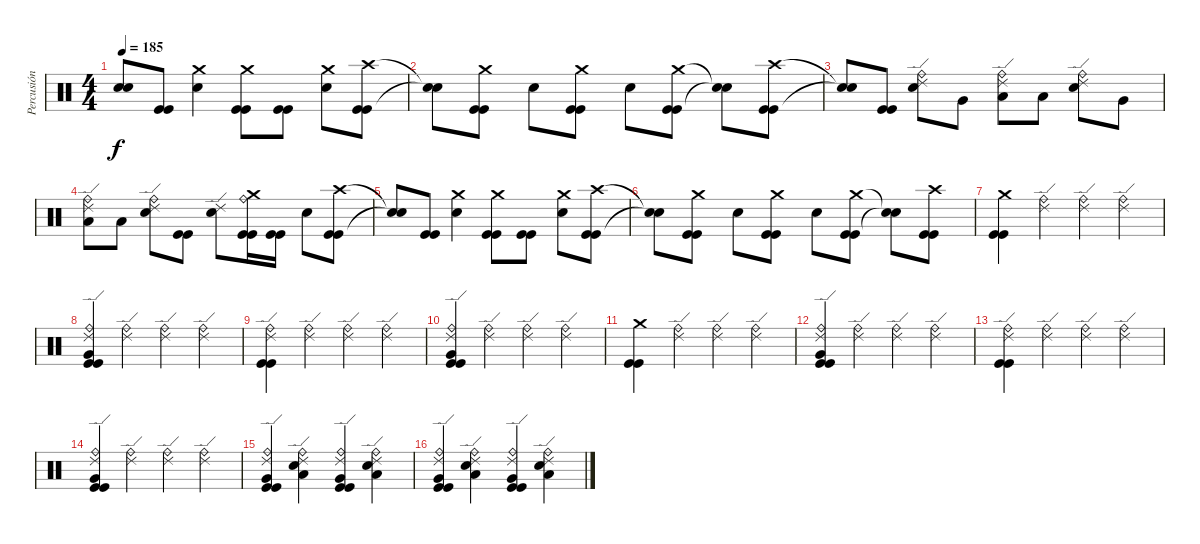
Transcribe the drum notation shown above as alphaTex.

\track ("Percusión" "Percusión") {instrument percussion}
\staff {score}
\articulation defaults
\ts (4 4)
\tempo 185
\clef neutral
\ks c
("Snare (hit)"{t} "Snare (hit)"{t}).8{dy f} ("Kick (hit)" "Kick (hit)").8 ("Crash medium (hit)" "Electric Snare (hit)").4 ("Crash medium (hit)" "Kick (hit)" "Kick (hit)").8 ("Kick (hit)" "Kick (hit)").8 ("Crash medium (hit)" "Electric Snare (hit)").8 ("Crash high (hit)" "Kick (hit)" "Kick (hit)").8 |
("Snare (hit)"{t} "Snare (hit)"{t}).8 ("Crash medium (hit)" "Kick (hit)" "Kick (hit)").8 "Electric Snare (hit)".8 ("Crash medium (hit)" "Kick (hit)" "Kick (hit)").8 "Electric Snare (hit)".8 ("Crash medium (hit)" "Kick (hit)" "Kick (hit)").8 ("Snare (hit)"{t} "Snare (hit)"{t}).8 ("Crash high (hit)" "Kick (hit)" "Kick (hit)").8 |
("Snare (hit)"{t} "Snare (hit)"{t}).8 ("Kick (hit)" "Kick (hit)").8 ("Ride (edge) 2" "Ride (bell)" "Electric Snare (hit)").8 "Very Low Tom (hit)".8 ("Ride (edge) 2" "Ride (bell)" "Low Floor Tom (hit)").8 "Low Floor Tom (hit)".8 ("Ride (edge) 2" "Ride (bell)" "Electric Snare (hit)").8 "Very Low Tom (hit)".8 |
("Ride (edge) 2" "Ride (bell)" "Low Floor Tom (hit)").8 "Low Floor Tom (hit)".8 ("Ride (edge) 2" "Ride (bell)" "Electric Snare (hit)").8 ("Kick (hit)" "Kick (hit)").8 ("Ride (edge) 2" "Electric Snare (hit)").8 ("Crash medium (hit)" "Ride (bell)" "Kick (hit)" "Kick (hit)").16 ("Kick (hit)" "Kick (hit)").16 "Electric Snare (hit)".8 ("Crash high (hit)" "Kick (hit)" "Kick (hit)").8 |
("Snare (hit)"{t} "Snare (hit)"{t}).8 ("Kick (hit)" "Kick (hit)").8 ("Crash medium (hit)" "Electric Snare (hit)").4 ("Crash medium (hit)" "Kick (hit)" "Kick (hit)").8 ("Kick (hit)" "Kick (hit)").8 ("Crash medium (hit)" "Electric Snare (hit)").8 ("Crash high (hit)" "Kick (hit)" "Kick (hit)").8 |
("Snare (hit)"{t} "Snare (hit)"{t}).8 ("Crash medium (hit)" "Kick (hit)" "Kick (hit)").8 "Electric Snare (hit)".8 ("Crash medium (hit)" "Kick (hit)" "Kick (hit)").8 "Electric Snare (hit)".8 ("Crash medium (hit)" "Kick (hit)" "Kick (hit)").8 ("Snare (hit)"{t} "Snare (hit)"{t}).8 ("Crash high (hit)" "Kick (hit)" "Kick (hit)").8 |
("Crash medium (hit)" "Kick (hit)" "Kick (hit)").4 ("Ride (edge) 2" "Ride (bell)").4 ("Ride (edge) 2" "Ride (bell)").4 ("Ride (edge) 2" "Ride (bell)").4 |
("Ride (edge) 2" "Ride (bell)" "Very Low Tom (hit)" "Kick (hit)" "Kick (hit)").4 ("Ride (edge) 2" "Ride (bell)").4 ("Ride (edge) 2" "Ride (bell)").4 ("Ride (edge) 2" "Ride (bell)").4 |
("Ride (edge) 2" "Ride (bell)" "Kick (hit)" "Kick (hit)").4 ("Ride (edge) 2" "Ride (bell)").4 ("Ride (edge) 2" "Ride (bell)").4 ("Ride (edge) 2" "Ride (bell)").4 |
("Ride (edge) 2" "Ride (bell)" "Very Low Tom (hit)" "Kick (hit)" "Kick (hit)").4 ("Ride (edge) 2" "Ride (bell)").4 ("Ride (edge) 2" "Ride (bell)").4 ("Ride (edge) 2" "Ride (bell)").4 |
("Crash medium (hit)" "Kick (hit)" "Kick (hit)").4 ("Ride (edge) 2" "Ride (bell)").4 ("Ride (edge) 2" "Ride (bell)").4 ("Ride (edge) 2" "Ride (bell)").4 |
("Ride (edge) 2" "Ride (bell)" "Very Low Tom (hit)" "Kick (hit)" "Kick (hit)").4 ("Ride (edge) 2" "Ride (bell)").4 ("Ride (edge) 2" "Ride (bell)").4 ("Ride (edge) 2" "Ride (bell)").4 |
("Ride (edge) 2" "Ride (bell)" "Kick (hit)" "Kick (hit)").4 ("Ride (edge) 2" "Ride (bell)").4 ("Ride (edge) 2" "Ride (bell)").4 ("Ride (edge) 2" "Ride (bell)").4 |
("Ride (edge) 2" "Ride (bell)" "Very Low Tom (hit)" "Kick (hit)" "Kick (hit)").4 ("Ride (edge) 2" "Ride (bell)").4 ("Ride (edge) 2" "Ride (bell)").4 ("Ride (edge) 2" "Ride (bell)").4 |
("Ride (edge) 2" "Ride (bell)" "Very Low Tom (hit)" "Kick (hit)" "Kick (hit)").4 ("Ride (edge) 2" "Ride (bell)" "Electric Snare (hit)" "Low Floor Tom (hit)").4 ("Ride (edge) 2" "Ride (bell)" "Very Low Tom (hit)" "Kick (hit)" "Kick (hit)").4 ("Ride (edge) 2" "Ride (bell)" "Electric Snare (hit)" "Low Floor Tom (hit)").4 |
("Ride (edge) 2" "Ride (bell)" "Very Low Tom (hit)" "Kick (hit)" "Kick (hit)").4 ("Ride (edge) 2" "Ride (bell)" "Electric Snare (hit)" "Low Floor Tom (hit)").4 ("Ride (edge) 2" "Ride (bell)" "Very Low Tom (hit)" "Kick (hit)" "Kick (hit)").4 ("Ride (edge) 2" "Ride (bell)" "Electric Snare (hit)" "Low Floor Tom (hit)").4
